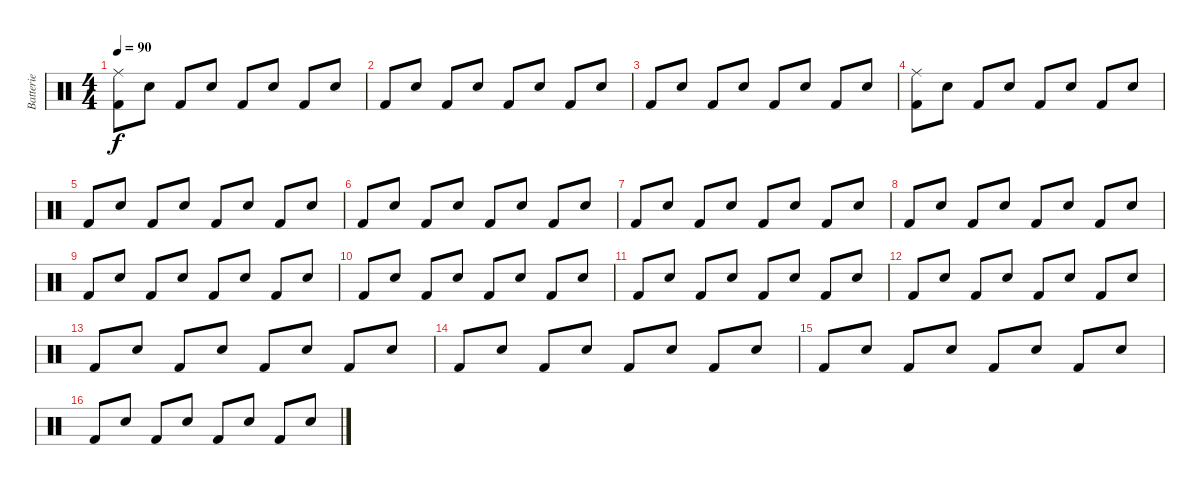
\track ("Batterie" "Batterie") {instrument percussion}
\staff {score}
\articulation defaults
\ts (4 4)
\tempo 90
\clef neutral
\ks c
("Ride (middle)" "Kick (hit) 2").8{dy f} "Electric Snare (hit)".8 "Kick (hit) 2".8 "Electric Snare (hit)".8 "Kick (hit) 2".8 "Electric Snare (hit)".8 "Kick (hit) 2".8 "Electric Snare (hit)".8 |
"Kick (hit) 2".8 "Electric Snare (hit)".8 "Kick (hit) 2".8 "Electric Snare (hit)".8 "Kick (hit) 2".8 "Electric Snare (hit)".8 "Kick (hit) 2".8 "Electric Snare (hit)".8 |
"Kick (hit) 2".8 "Electric Snare (hit)".8 "Kick (hit) 2".8 "Electric Snare (hit)".8 "Kick (hit) 2".8 "Electric Snare (hit)".8 "Kick (hit) 2".8 "Electric Snare (hit)".8 |
("Ride (middle)" "Kick (hit) 2").8 "Electric Snare (hit)".8 "Kick (hit) 2".8 "Electric Snare (hit)".8 "Kick (hit) 2".8 "Electric Snare (hit)".8 "Kick (hit) 2".8 "Electric Snare (hit)".8 |
"Kick (hit) 2".8 "Electric Snare (hit)".8 "Kick (hit) 2".8 "Electric Snare (hit)".8 "Kick (hit) 2".8 "Electric Snare (hit)".8 "Kick (hit) 2".8 "Electric Snare (hit)".8 |
"Kick (hit) 2".8 "Electric Snare (hit)".8 "Kick (hit) 2".8 "Electric Snare (hit)".8 "Kick (hit) 2".8 "Electric Snare (hit)".8 "Kick (hit) 2".8 "Electric Snare (hit)".8 |
"Kick (hit) 2".8 "Electric Snare (hit)".8 "Kick (hit) 2".8 "Electric Snare (hit)".8 "Kick (hit) 2".8 "Electric Snare (hit)".8 "Kick (hit) 2".8 "Electric Snare (hit)".8 |
"Kick (hit) 2".8 "Electric Snare (hit)".8 "Kick (hit) 2".8 "Electric Snare (hit)".8 "Kick (hit) 2".8 "Electric Snare (hit)".8 "Kick (hit) 2".8 "Electric Snare (hit)".8 |
"Kick (hit) 2".8 "Electric Snare (hit)".8 "Kick (hit) 2".8 "Electric Snare (hit)".8 "Kick (hit) 2".8 "Electric Snare (hit)".8 "Kick (hit) 2".8 "Electric Snare (hit)".8 |
"Kick (hit) 2".8 "Electric Snare (hit)".8 "Kick (hit) 2".8 "Electric Snare (hit)".8 "Kick (hit) 2".8 "Electric Snare (hit)".8 "Kick (hit) 2".8 "Electric Snare (hit)".8 |
"Kick (hit) 2".8 "Electric Snare (hit)".8 "Kick (hit) 2".8 "Electric Snare (hit)".8 "Kick (hit) 2".8 "Electric Snare (hit)".8 "Kick (hit) 2".8 "Electric Snare (hit)".8 |
"Kick (hit) 2".8 "Electric Snare (hit)".8 "Kick (hit) 2".8 "Electric Snare (hit)".8 "Kick (hit) 2".8 "Electric Snare (hit)".8 "Kick (hit) 2".8 "Electric Snare (hit)".8 |
"Kick (hit) 2".8 "Electric Snare (hit)".8 "Kick (hit) 2".8 "Electric Snare (hit)".8 "Kick (hit) 2".8 "Electric Snare (hit)".8 "Kick (hit) 2".8 "Electric Snare (hit)".8 |
"Kick (hit) 2".8 "Electric Snare (hit)".8 "Kick (hit) 2".8 "Electric Snare (hit)".8 "Kick (hit) 2".8 "Electric Snare (hit)".8 "Kick (hit) 2".8 "Electric Snare (hit)".8 |
"Kick (hit) 2".8 "Electric Snare (hit)".8 "Kick (hit) 2".8 "Electric Snare (hit)".8 "Kick (hit) 2".8 "Electric Snare (hit)".8 "Kick (hit) 2".8 "Electric Snare (hit)".8 |
"Kick (hit) 2".8 "Electric Snare (hit)".8 "Kick (hit) 2".8 "Electric Snare (hit)".8 "Kick (hit) 2".8 "Electric Snare (hit)".8 "Kick (hit) 2".8 "Electric Snare (hit)".8
